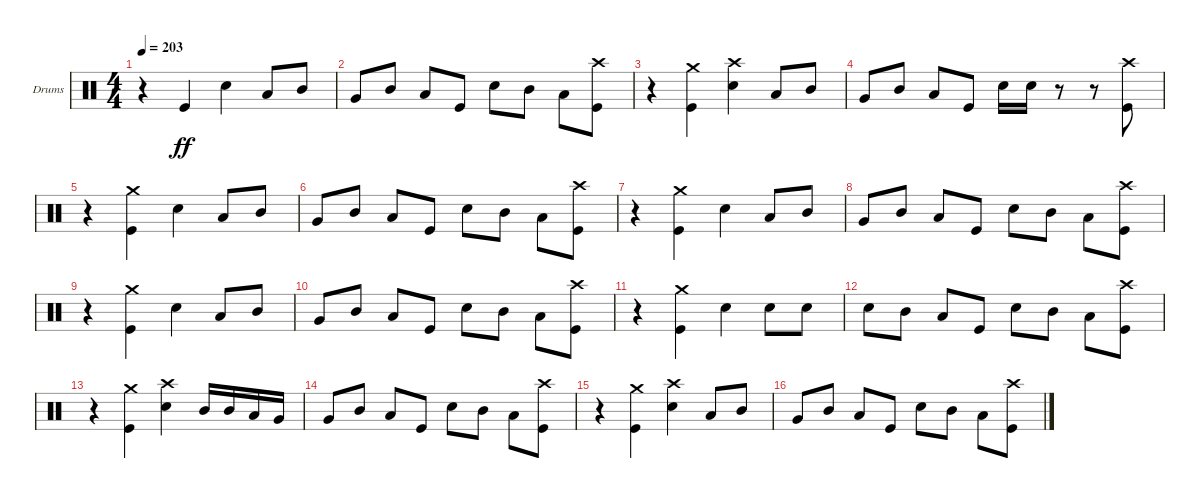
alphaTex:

\defaultSystemsLayout 4
\bracketExtendMode groupsimilarinstruments
\firstSystemTrackNameOrientation horizontal
\otherSystemsTrackNameOrientation horizontal
\track ("Brandon Barnes - Drums" "Drums") {instrument percussion}
\staff {score}
\articulation defaults
\ts (4 4)
\tempo 203
\clef neutral
\ks c
r.4{dy ff} "Kick (hit)".4 "Snare (hit) 2".4 "Low Tom (hit)".8 "Mid Tom (hit)".8 |
"Very Low Tom (hit)".8 "Mid Tom (hit)".8 "Low Tom (hit)".8 "Kick (hit)".8 "Snare (hit) 2".8 "Mid Tom (hit)".8 "Low Tom (hit)".8 ("Kick (hit)" "Crash high (hit)").8 |
r.4 ("Kick (hit)" "Crash medium (hit)").4 ("Snare (hit) 2" "Crash high (hit)").4 "Low Tom (hit)".8 "Mid Tom (hit)".8 |
"Very Low Tom (hit)".8 "Mid Tom (hit)".8 "Low Tom (hit)".8 "Kick (hit)".8 "Snare (hit) 2".16 "Snare (hit) 2".16 r.8 r.8 ("Kick (hit)" "Crash high (hit)").8 |
r.4 ("Kick (hit)" "Crash medium (hit)").4 "Snare (hit) 2".4 "Low Tom (hit)".8 "Mid Tom (hit)".8 |
"Very Low Tom (hit)".8 "Mid Tom (hit)".8 "Low Tom (hit)".8 "Kick (hit)".8 "Snare (hit) 2".8 "Mid Tom (hit)".8 "Low Tom (hit)".8 ("Kick (hit)" "Crash high (hit)").8 |
r.4 ("Kick (hit)" "Crash medium (hit)").4 "Snare (hit) 2".4 "Low Tom (hit)".8 "Mid Tom (hit)".8 |
"Very Low Tom (hit)".8 "Mid Tom (hit)".8 "Low Tom (hit)".8 "Kick (hit)".8 "Snare (hit) 2".8 "Mid Tom (hit)".8 "Low Tom (hit)".8 ("Kick (hit)" "Crash high (hit)").8 |
r.4 ("Kick (hit)" "Crash medium (hit)").4 "Snare (hit) 2".4 "Low Tom (hit)".8 "Mid Tom (hit)".8 |
"Very Low Tom (hit)".8 "Mid Tom (hit)".8 "Low Tom (hit)".8 "Kick (hit)".8 "Snare (hit) 2".8 "Mid Tom (hit)".8 "Low Tom (hit)".8 ("Kick (hit)" "Crash high (hit)").8 |
r.4 ("Kick (hit)" "Crash medium (hit)").4 "Snare (hit) 2".4 "Snare (hit) 2".8 "Snare (hit) 2".8 |
"Snare (hit) 2".8 "Mid Tom (hit)".8 "Low Tom (hit)".8 "Kick (hit)".8 "Snare (hit) 2".8 "Mid Tom (hit)".8 "Low Tom (hit)".8 ("Kick (hit)" "Crash high (hit)").8 |
r.4 ("Kick (hit)" "Crash medium (hit)").4 ("Snare (hit) 2" "Crash high (hit)").4 "Mid Tom (hit)".16 "Mid Tom (hit)".16 "Low Tom (hit)".16 "Very Low Tom (hit)".16 |
"Very Low Tom (hit)".8 "Mid Tom (hit)".8 "Low Tom (hit)".8 "Kick (hit)".8 "Snare (hit) 2".8 "Mid Tom (hit)".8 "Low Tom (hit)".8 ("Kick (hit)" "Crash high (hit)").8 |
r.4 ("Kick (hit)" "Crash medium (hit)").4 ("Snare (hit) 2" "Crash high (hit)").4 "Low Tom (hit)".8 "Mid Tom (hit)".8 |
"Very Low Tom (hit)".8 "Mid Tom (hit)".8 "Low Tom (hit)".8 "Kick (hit)".8 "Snare (hit) 2".8 "Mid Tom (hit)".8 "Low Tom (hit)".8 ("Kick (hit)" "Crash high (hit)").8
